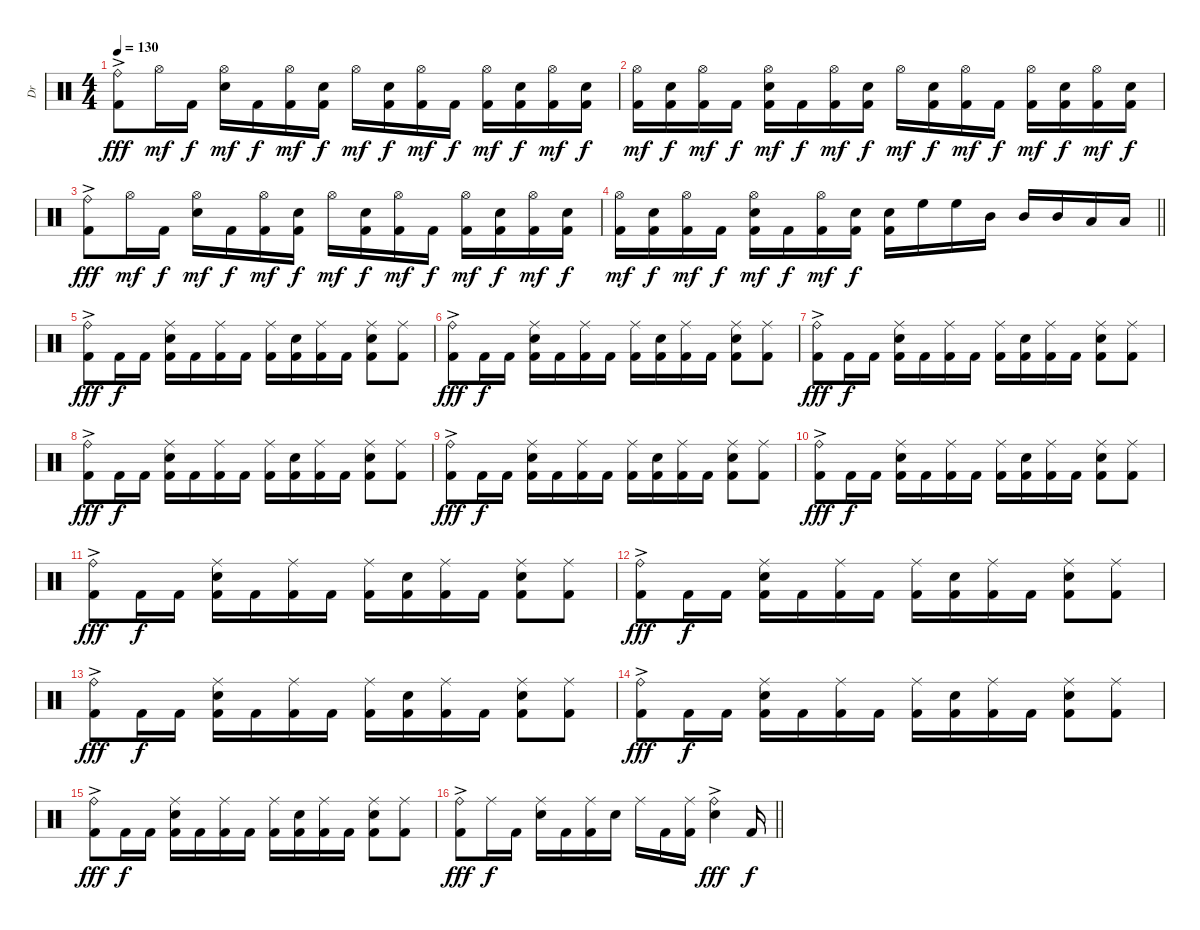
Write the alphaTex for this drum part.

\track ("Dr" "Dr") {instrument percussion}
\staff {score}
\articulation defaults
\ts (4 4)
\tempo 130
\clef neutral
\ks c
("Ride (bell)"{ac} "Kick (hit) 2"{ac}).8{dy fff} "Hi-Hat (open)".16{dy mf} "Kick (hit) 2".16{dy f} ("Hi-Hat (open)" "Electric Snare (hit)").16{dy mf} "Kick (hit) 2".16{dy f} ("Hi-Hat (open)" "Kick (hit) 2").16{dy mf} ("Electric Snare (hit)" "Kick (hit) 2").16{dy f} "Hi-Hat (open)".16{dy mf} ("Electric Snare (hit)" "Kick (hit) 2").16{dy f} ("Hi-Hat (open)" "Kick (hit) 2").16{dy mf} "Kick (hit) 2".16{dy f} ("Hi-Hat (open)" "Kick (hit) 2").16{dy mf} ("Electric Snare (hit)" "Kick (hit) 2").16{dy f} ("Hi-Hat (open)" "Kick (hit) 2").16{dy mf} ("Electric Snare (hit)" "Kick (hit) 2").16{dy f} |
("Hi-Hat (open)" "Kick (hit) 2").16{dy mf} ("Electric Snare (hit)" "Kick (hit) 2").16{dy f} ("Hi-Hat (open)" "Kick (hit) 2").16{dy mf} "Kick (hit) 2".16{dy f} ("Hi-Hat (open)" "Electric Snare (hit)" "Kick (hit) 2").16{dy mf} "Kick (hit) 2".16{dy f} ("Hi-Hat (open)" "Kick (hit) 2").16{dy mf} ("Electric Snare (hit)" "Kick (hit) 2").16{dy f} "Hi-Hat (open)".16{dy mf} ("Electric Snare (hit)" "Kick (hit) 2").16{dy f} ("Hi-Hat (open)" "Kick (hit) 2").16{dy mf} "Kick (hit) 2".16{dy f} ("Hi-Hat (open)" "Kick (hit) 2").16{dy mf} ("Electric Snare (hit)" "Kick (hit) 2").16{dy f} ("Hi-Hat (open)" "Kick (hit) 2").16{dy mf} ("Electric Snare (hit)" "Kick (hit) 2").16{dy f} |
("Ride (bell)"{ac} "Kick (hit) 2"{ac}).8{dy fff} "Hi-Hat (open)".16{dy mf} "Kick (hit) 2".16{dy f} ("Hi-Hat (open)" "Electric Snare (hit)").16{dy mf} "Kick (hit) 2".16{dy f} ("Hi-Hat (open)" "Kick (hit) 2").16{dy mf} ("Electric Snare (hit)" "Kick (hit) 2").16{dy f} "Hi-Hat (open)".16{dy mf} ("Electric Snare (hit)" "Kick (hit) 2").16{dy f} ("Hi-Hat (open)" "Kick (hit) 2").16{dy mf} "Kick (hit) 2".16{dy f} ("Hi-Hat (open)" "Kick (hit) 2").16{dy mf} ("Electric Snare (hit)" "Kick (hit) 2").16{dy f} ("Hi-Hat (open)" "Kick (hit) 2").16{dy mf} ("Electric Snare (hit)" "Kick (hit) 2").16{dy f} |
\barLineRight lightlight
("Hi-Hat (open)" "Kick (hit) 2").16{dy mf} ("Electric Snare (hit)" "Kick (hit) 2").16{dy f} ("Hi-Hat (open)" "Kick (hit) 2").16{dy mf} "Kick (hit) 2".16{dy f} ("Hi-Hat (open)" "Electric Snare (hit)" "Kick (hit) 2").16{dy mf} "Kick (hit) 2".16{dy f} ("Hi-Hat (open)" "Kick (hit) 2").16{dy mf} ("Electric Snare (hit)" "Kick (hit) 2").16{dy f} ("Electric Snare (hit)" "Kick (hit) 2").16 "High Floor Tom (hit)".16 "High Floor Tom (hit)".16 "Mid Tom (hit)".16 "Mid Tom (hit)".16 "Mid Tom (hit)".16 "Low Tom (hit)".16 "Low Tom (hit)".16 |
("Ride (bell)"{ac} "Kick (hit) 2"{ac}).8{dy fff} "Kick (hit) 2".16{dy f} "Kick (hit) 2".16 ("Ride (middle)" "Electric Snare (hit)" "Kick (hit) 2").16 "Kick (hit) 2".16 ("Ride (middle)" "Kick (hit) 2").16 "Kick (hit) 2".16 ("Ride (middle)" "Kick (hit) 2").16 ("Electric Snare (hit)" "Kick (hit) 2").16 ("Ride (middle)" "Kick (hit) 2").16 "Kick (hit) 2".16 ("Ride (middle)" "Electric Snare (hit)" "Kick (hit) 2").8 ("Ride (middle)" "Kick (hit) 2").8 |
("Ride (bell)"{ac} "Kick (hit) 2"{ac}).8{dy fff} "Kick (hit) 2".16{dy f} "Kick (hit) 2".16 ("Ride (middle)" "Electric Snare (hit)" "Kick (hit) 2").16 "Kick (hit) 2".16 ("Ride (middle)" "Kick (hit) 2").16 "Kick (hit) 2".16 ("Ride (middle)" "Kick (hit) 2").16 ("Electric Snare (hit)" "Kick (hit) 2").16 ("Ride (middle)" "Kick (hit) 2").16 "Kick (hit) 2".16 ("Ride (middle)" "Electric Snare (hit)" "Kick (hit) 2").8 ("Ride (middle)" "Kick (hit) 2").8 |
("Ride (bell)"{ac} "Kick (hit) 2"{ac}).8{dy fff} "Kick (hit) 2".16{dy f} "Kick (hit) 2".16 ("Ride (middle)" "Electric Snare (hit)" "Kick (hit) 2").16 "Kick (hit) 2".16 ("Ride (middle)" "Kick (hit) 2").16 "Kick (hit) 2".16 ("Ride (middle)" "Kick (hit) 2").16 ("Electric Snare (hit)" "Kick (hit) 2").16 ("Ride (middle)" "Kick (hit) 2").16 "Kick (hit) 2".16 ("Ride (middle)" "Electric Snare (hit)" "Kick (hit) 2").8 ("Ride (middle)" "Kick (hit) 2").8 |
("Ride (bell)"{ac} "Kick (hit) 2"{ac}).8{dy fff} "Kick (hit) 2".16{dy f} "Kick (hit) 2".16 ("Ride (middle)" "Electric Snare (hit)" "Kick (hit) 2").16 "Kick (hit) 2".16 ("Ride (middle)" "Kick (hit) 2").16 "Kick (hit) 2".16 ("Ride (middle)" "Kick (hit) 2").16 ("Electric Snare (hit)" "Kick (hit) 2").16 ("Ride (middle)" "Kick (hit) 2").16 "Kick (hit) 2".16 ("Ride (middle)" "Electric Snare (hit)" "Kick (hit) 2").8 ("Ride (middle)" "Kick (hit) 2").8 |
("Ride (bell)"{ac} "Kick (hit) 2"{ac}).8{dy fff} "Kick (hit) 2".16{dy f} "Kick (hit) 2".16 ("Ride (middle)" "Electric Snare (hit)" "Kick (hit) 2").16 "Kick (hit) 2".16 ("Ride (middle)" "Kick (hit) 2").16 "Kick (hit) 2".16 ("Ride (middle)" "Kick (hit) 2").16 ("Electric Snare (hit)" "Kick (hit) 2").16 ("Ride (middle)" "Kick (hit) 2").16 "Kick (hit) 2".16 ("Ride (middle)" "Electric Snare (hit)" "Kick (hit) 2").8 ("Ride (middle)" "Kick (hit) 2").8 |
("Ride (bell)"{ac} "Kick (hit) 2"{ac}).8{dy fff} "Kick (hit) 2".16{dy f} "Kick (hit) 2".16 ("Ride (middle)" "Electric Snare (hit)" "Kick (hit) 2").16 "Kick (hit) 2".16 ("Ride (middle)" "Kick (hit) 2").16 "Kick (hit) 2".16 ("Ride (middle)" "Kick (hit) 2").16 ("Electric Snare (hit)" "Kick (hit) 2").16 ("Ride (middle)" "Kick (hit) 2").16 "Kick (hit) 2".16 ("Ride (middle)" "Electric Snare (hit)" "Kick (hit) 2").8 ("Ride (middle)" "Kick (hit) 2").8 |
("Ride (bell)"{ac} "Kick (hit) 2"{ac}).8{dy fff} "Kick (hit) 2".16{dy f} "Kick (hit) 2".16 ("Ride (middle)" "Electric Snare (hit)" "Kick (hit) 2").16 "Kick (hit) 2".16 ("Ride (middle)" "Kick (hit) 2").16 "Kick (hit) 2".16 ("Ride (middle)" "Kick (hit) 2").16 ("Electric Snare (hit)" "Kick (hit) 2").16 ("Ride (middle)" "Kick (hit) 2").16 "Kick (hit) 2".16 ("Ride (middle)" "Electric Snare (hit)" "Kick (hit) 2").8 ("Ride (middle)" "Kick (hit) 2").8 |
("Ride (bell)"{ac} "Kick (hit) 2"{ac}).8{dy fff} "Kick (hit) 2".16{dy f} "Kick (hit) 2".16 ("Ride (middle)" "Electric Snare (hit)" "Kick (hit) 2").16 "Kick (hit) 2".16 ("Ride (middle)" "Kick (hit) 2").16 "Kick (hit) 2".16 ("Ride (middle)" "Kick (hit) 2").16 ("Electric Snare (hit)" "Kick (hit) 2").16 ("Ride (middle)" "Kick (hit) 2").16 "Kick (hit) 2".16 ("Ride (middle)" "Electric Snare (hit)" "Kick (hit) 2").8 ("Ride (middle)" "Kick (hit) 2").8 |
("Ride (bell)"{ac} "Kick (hit) 2"{ac}).8{dy fff} "Kick (hit) 2".16{dy f} "Kick (hit) 2".16 ("Ride (middle)" "Electric Snare (hit)" "Kick (hit) 2").16 "Kick (hit) 2".16 ("Ride (middle)" "Kick (hit) 2").16 "Kick (hit) 2".16 ("Ride (middle)" "Kick (hit) 2").16 ("Electric Snare (hit)" "Kick (hit) 2").16 ("Ride (middle)" "Kick (hit) 2").16 "Kick (hit) 2".16 ("Ride (middle)" "Electric Snare (hit)" "Kick (hit) 2").8 ("Ride (middle)" "Kick (hit) 2").8 |
("Ride (bell)"{ac} "Kick (hit) 2"{ac}).8{dy fff} "Kick (hit) 2".16{dy f} "Kick (hit) 2".16 ("Ride (middle)" "Electric Snare (hit)" "Kick (hit) 2").16 "Kick (hit) 2".16 ("Ride (middle)" "Kick (hit) 2").16 "Kick (hit) 2".16 ("Ride (middle)" "Kick (hit) 2").16 ("Electric Snare (hit)" "Kick (hit) 2").16 ("Ride (middle)" "Kick (hit) 2").16 "Kick (hit) 2".16 ("Ride (middle)" "Electric Snare (hit)" "Kick (hit) 2").8 ("Ride (middle)" "Kick (hit) 2").8 |
("Ride (bell)"{ac} "Kick (hit) 2"{ac}).8{dy fff} "Kick (hit) 2".16{dy f} "Kick (hit) 2".16 ("Ride (middle)" "Electric Snare (hit)" "Kick (hit) 2").16 "Kick (hit) 2".16 ("Ride (middle)" "Kick (hit) 2").16 "Kick (hit) 2".16 ("Ride (middle)" "Kick (hit) 2").16 ("Electric Snare (hit)" "Kick (hit) 2").16 ("Ride (middle)" "Kick (hit) 2").16 "Kick (hit) 2".16 ("Ride (middle)" "Electric Snare (hit)" "Kick (hit) 2").8 ("Ride (middle)" "Kick (hit) 2").8 |
\barLineRight lightlight
("Ride (bell)"{ac} "Kick (hit) 2"{ac}).8{dy fff} "Ride (middle)".16{dy f} "Kick (hit) 2".16 ("Ride (middle)" "Electric Snare (hit)").16 "Kick (hit) 2".16 ("Ride (middle)" "Kick (hit) 2").16 "Electric Snare (hit)".16 "Ride (middle)".16 "Kick (hit) 2".16 ("Ride (middle)" "Kick (hit) 2").16 ("Ride (bell)"{ac} "Electric Snare (hit)"{ac}).4{dy fff} "Kick (hit) 2".16{dy f}
